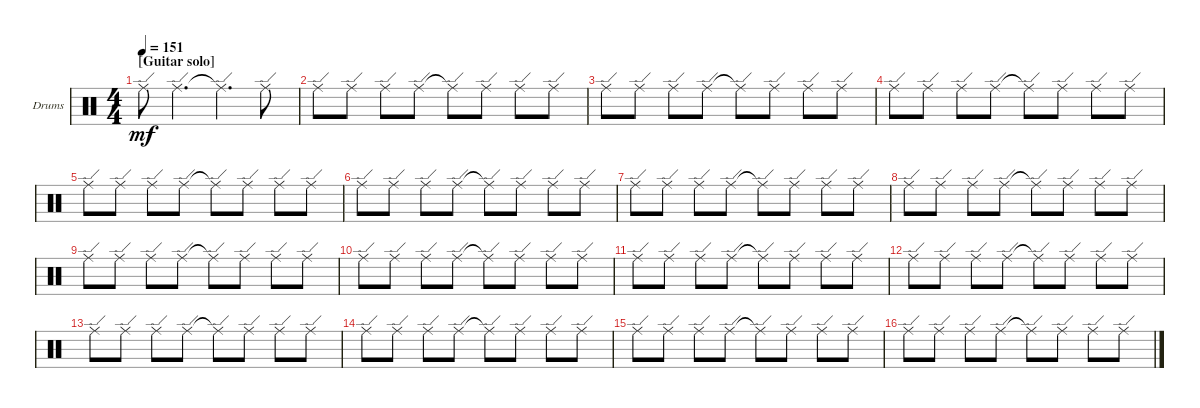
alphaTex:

\bracketExtendMode groupsimilarinstruments
\firstSystemTrackNameOrientation horizontal
\otherSystemsTrackNameOrientation horizontal
\track ("Drumkit" "Drums") {instrument percussion}
\staff {score}
\articulation defaults
\ts (4 4)
\section ("" "[Guitar solo]")
\tempo 151
\clef neutral
\ks aminor "Ride (edge)".8{dy mf} "Ride (edge)".4{d} "Ride (edge)"{t}.4{d} "Ride (edge)".8
|
"Ride (edge)".8 "Ride (edge)".8 "Ride (edge)".8 "Ride (edge)".8 "Ride (edge)"{t}.8 "Ride (edge)".8 "Ride (edge)".8 "Ride (edge)".8 |
"Ride (edge)".8 "Ride (edge)".8 "Ride (edge)".8 "Ride (edge)".8 "Ride (edge)"{t}.8 "Ride (edge)".8 "Ride (edge)".8 "Ride (edge)".8 |
"Ride (edge)".8 "Ride (edge)".8 "Ride (edge)".8 "Ride (edge)".8 "Ride (edge)"{t}.8 "Ride (edge)".8 "Ride (edge)".8 "Ride (edge)".8 |
"Ride (edge)".8 "Ride (edge)".8 "Ride (edge)".8 "Ride (edge)".8 "Ride (edge)"{t}.8 "Ride (edge)".8 "Ride (edge)".8 "Ride (edge)".8 |
"Ride (edge)".8 "Ride (edge)".8 "Ride (edge)".8 "Ride (edge)".8 "Ride (edge)"{t}.8 "Ride (edge)".8 "Ride (edge)".8 "Ride (edge)".8 |
"Ride (edge)".8 "Ride (edge)".8 "Ride (edge)".8 "Ride (edge)".8 "Ride (edge)"{t}.8 "Ride (edge)".8 "Ride (edge)".8 "Ride (edge)".8 |
"Ride (edge)".8 "Ride (edge)".8 "Ride (edge)".8 "Ride (edge)".8 "Ride (edge)"{t}.8 "Ride (edge)".8 "Ride (edge)".8 "Ride (edge)".8 |
"Ride (edge)".8 "Ride (edge)".8 "Ride (edge)".8 "Ride (edge)".8 "Ride (edge)"{t}.8 "Ride (edge)".8 "Ride (edge)".8 "Ride (edge)".8 |
"Ride (edge)".8 "Ride (edge)".8 "Ride (edge)".8 "Ride (edge)".8 "Ride (edge)"{t}.8 "Ride (edge)".8 "Ride (edge)".8 "Ride (edge)".8 |
"Ride (edge)".8 "Ride (edge)".8 "Ride (edge)".8 "Ride (edge)".8 "Ride (edge)"{t}.8 "Ride (edge)".8 "Ride (edge)".8 "Ride (edge)".8 |
"Ride (edge)".8 "Ride (edge)".8 "Ride (edge)".8 "Ride (edge)".8 "Ride (edge)"{t}.8 "Ride (edge)".8 "Ride (edge)".8 "Ride (edge)".8 |
"Ride (edge)".8 "Ride (edge)".8 "Ride (edge)".8 "Ride (edge)".8 "Ride (edge)"{t}.8 "Ride (edge)".8 "Ride (edge)".8 "Ride (edge)".8 |
"Ride (edge)".8 "Ride (edge)".8 "Ride (edge)".8 "Ride (edge)".8 "Ride (edge)"{t}.8 "Ride (edge)".8 "Ride (edge)".8 "Ride (edge)".8 |
"Ride (edge)".8 "Ride (edge)".8 "Ride (edge)".8 "Ride (edge)".8 "Ride (edge)"{t}.8 "Ride (edge)".8 "Ride (edge)".8 "Ride (edge)".8 |
"Ride (edge)".8 "Ride (edge)".8 "Ride (edge)".8 "Ride (edge)".8 "Ride (edge)"{t}.8 "Ride (edge)".8 "Ride (edge)".8 "Ride (edge)".8
